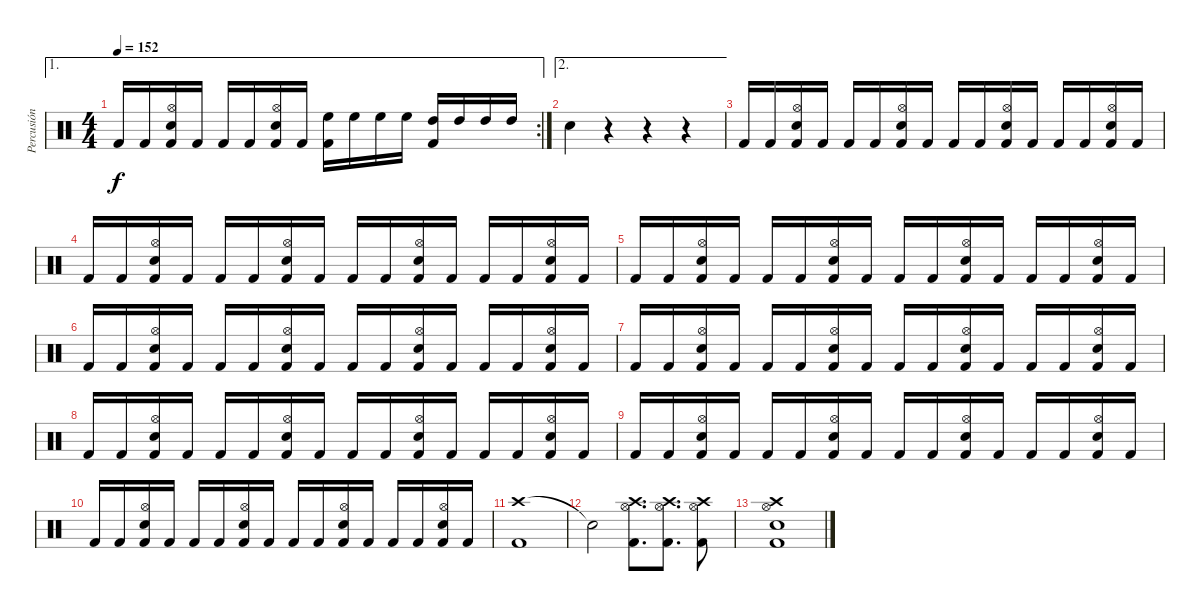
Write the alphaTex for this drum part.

\track ("Percusión" "Percusión") {instrument percussion}
\staff {score}
\articulation defaults
\ae 1
\rc 2
\ts (4 4)
\tempo 152
\clef neutral
\ks c "Kick (hit) 2".16{dy f} "Kick (hit) 2".16
("Hi-Hat (open)" "Snare (hit) 2" "Kick (hit) 2").16 "Kick (hit) 2".16 "Kick (hit) 2".16 "Kick (hit) 2".16 ("Hi-Hat (open)" "Snare (hit) 2" "Kick (hit) 2").16 "Kick (hit) 2".16 ("Kick (hit) 2" "High Floor Tom (hit)").16 "High Floor Tom (hit)".16 "High Floor Tom (hit)".16 "High Floor Tom (hit)".16 ("Kick (hit) 2" "High Tom (hit)").16 "High Tom (hit)".16 "High Tom (hit)".16 "High Tom (hit)".16 |
\ae 2 "Snare (hit) 2".4
r.4 r.4 r.4 |
"Kick (hit) 2".16 "Kick (hit) 2".16 ("Hi-Hat (open)" "Snare (hit) 2" "Kick (hit) 2").16 "Kick (hit) 2".16 "Kick (hit) 2".16 "Kick (hit) 2".16 ("Hi-Hat (open)" "Snare (hit) 2" "Kick (hit) 2").16 "Kick (hit) 2".16 "Kick (hit) 2".16 "Kick (hit) 2".16 ("Hi-Hat (open)" "Snare (hit) 2" "Kick (hit) 2").16 "Kick (hit) 2".16 "Kick (hit) 2".16 "Kick (hit) 2".16 ("Hi-Hat (open)" "Snare (hit) 2" "Kick (hit) 2").16 "Kick (hit) 2".16 |
"Kick (hit) 2".16 "Kick (hit) 2".16 ("Hi-Hat (open)" "Snare (hit) 2" "Kick (hit) 2").16 "Kick (hit) 2".16 "Kick (hit) 2".16 "Kick (hit) 2".16 ("Hi-Hat (open)" "Snare (hit) 2" "Kick (hit) 2").16 "Kick (hit) 2".16 "Kick (hit) 2".16 "Kick (hit) 2".16 ("Hi-Hat (open)" "Snare (hit) 2" "Kick (hit) 2").16 "Kick (hit) 2".16 "Kick (hit) 2".16 "Kick (hit) 2".16 ("Hi-Hat (open)" "Snare (hit) 2" "Kick (hit) 2").16 "Kick (hit) 2".16 |
"Kick (hit) 2".16 "Kick (hit) 2".16 ("Hi-Hat (open)" "Snare (hit) 2" "Kick (hit) 2").16 "Kick (hit) 2".16 "Kick (hit) 2".16 "Kick (hit) 2".16 ("Hi-Hat (open)" "Snare (hit) 2" "Kick (hit) 2").16 "Kick (hit) 2".16 "Kick (hit) 2".16 "Kick (hit) 2".16 ("Hi-Hat (open)" "Snare (hit) 2" "Kick (hit) 2").16 "Kick (hit) 2".16 "Kick (hit) 2".16 "Kick (hit) 2".16 ("Hi-Hat (open)" "Snare (hit) 2" "Kick (hit) 2").16 "Kick (hit) 2".16 |
"Kick (hit) 2".16 "Kick (hit) 2".16 ("Hi-Hat (open)" "Snare (hit) 2" "Kick (hit) 2").16 "Kick (hit) 2".16 "Kick (hit) 2".16 "Kick (hit) 2".16 ("Hi-Hat (open)" "Snare (hit) 2" "Kick (hit) 2").16 "Kick (hit) 2".16 "Kick (hit) 2".16 "Kick (hit) 2".16 ("Hi-Hat (open)" "Snare (hit) 2" "Kick (hit) 2").16 "Kick (hit) 2".16 "Kick (hit) 2".16 "Kick (hit) 2".16 ("Hi-Hat (open)" "Snare (hit) 2" "Kick (hit) 2").16 "Kick (hit) 2".16 |
"Kick (hit) 2".16 "Kick (hit) 2".16 ("Hi-Hat (open)" "Snare (hit) 2" "Kick (hit) 2").16 "Kick (hit) 2".16 "Kick (hit) 2".16 "Kick (hit) 2".16 ("Hi-Hat (open)" "Snare (hit) 2" "Kick (hit) 2").16 "Kick (hit) 2".16 "Kick (hit) 2".16 "Kick (hit) 2".16 ("Hi-Hat (open)" "Snare (hit) 2" "Kick (hit) 2").16 "Kick (hit) 2".16 "Kick (hit) 2".16 "Kick (hit) 2".16 ("Hi-Hat (open)" "Snare (hit) 2" "Kick (hit) 2").16 "Kick (hit) 2".16 |
"Kick (hit) 2".16 "Kick (hit) 2".16 ("Hi-Hat (open)" "Snare (hit) 2" "Kick (hit) 2").16 "Kick (hit) 2".16 "Kick (hit) 2".16 "Kick (hit) 2".16 ("Hi-Hat (open)" "Snare (hit) 2" "Kick (hit) 2").16 "Kick (hit) 2".16 "Kick (hit) 2".16 "Kick (hit) 2".16 ("Hi-Hat (open)" "Snare (hit) 2" "Kick (hit) 2").16 "Kick (hit) 2".16 "Kick (hit) 2".16 "Kick (hit) 2".16 ("Hi-Hat (open)" "Snare (hit) 2" "Kick (hit) 2").16 "Kick (hit) 2".16 |
"Kick (hit) 2".16 "Kick (hit) 2".16 ("Hi-Hat (open)" "Snare (hit) 2" "Kick (hit) 2").16 "Kick (hit) 2".16 "Kick (hit) 2".16 "Kick (hit) 2".16 ("Hi-Hat (open)" "Snare (hit) 2" "Kick (hit) 2").16 "Kick (hit) 2".16 "Kick (hit) 2".16 "Kick (hit) 2".16 ("Hi-Hat (open)" "Snare (hit) 2" "Kick (hit) 2").16 "Kick (hit) 2".16 "Kick (hit) 2".16 "Kick (hit) 2".16 ("Hi-Hat (open)" "Snare (hit) 2" "Kick (hit) 2").16 "Kick (hit) 2".16 |
"Kick (hit) 2".16 "Kick (hit) 2".16 ("Hi-Hat (open)" "Snare (hit) 2" "Kick (hit) 2").16 "Kick (hit) 2".16 "Kick (hit) 2".16 "Kick (hit) 2".16 ("Hi-Hat (open)" "Snare (hit) 2" "Kick (hit) 2").16 "Kick (hit) 2".16 "Kick (hit) 2".16 "Kick (hit) 2".16 ("Hi-Hat (open)" "Snare (hit) 2" "Kick (hit) 2").16 "Kick (hit) 2".16 "Kick (hit) 2".16 "Kick (hit) 2".16 ("Hi-Hat (open)" "Snare (hit) 2" "Kick (hit) 2").16 "Kick (hit) 2".16 |
("Crash high (hit)" "Kick (hit) 2").1 |
"Snare (hit)"{t}.2 ("Crash high (hit)" "Hi-Hat (open)" "Kick (hit) 2").8{d} ("Crash high (hit)" "Hi-Hat (open)" "Kick (hit) 2").8{d} ("Crash high (hit)" "Hi-Hat (open)" "Kick (hit) 2").8 |
("Crash high (hit)" "Hi-Hat (open)" "Snare (hit) 2" "Kick (hit) 2").1
